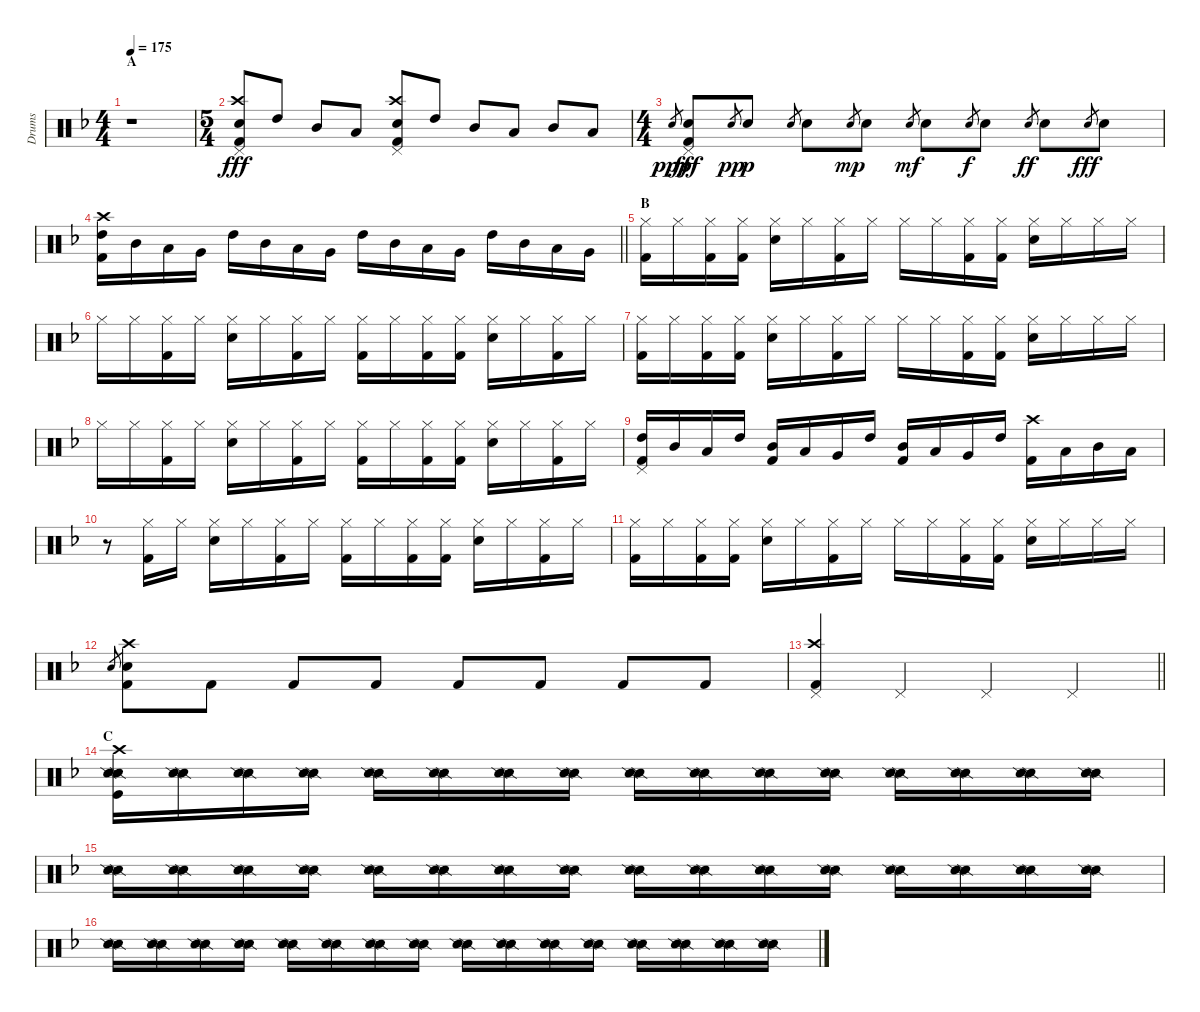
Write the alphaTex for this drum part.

\track ("Drums" "Drums") {instrument percussion}
\staff {score}
\articulation defaults
\ts (4 4)
\section ("" "A")
\tempo 175
\clef neutral
\ks f
r.1{dy fff} |
\ts (5 4)
("Pedal Hi-Hat (hit)" "Crash high (hit)" "Snare (hit) 2" "Kick (hit) 2").8 "High Tom (hit)".8 "Mid Tom (hit)".8 "Low Tom (hit)".8 ("Pedal Hi-Hat (hit)" "Crash high (hit)" "Snare (hit) 2" "Kick (hit) 2").8 "High Tom (hit)".8 "Mid Tom (hit)".8 "Low Tom (hit)".8 "Mid Tom (hit)".8 "Low Tom (hit)".8 |
\ts (4 4)
"Snare (hit) 2".8{gr dy ppp} ("Pedal Hi-Hat (hit)" "Snare (hit) 2" "Kick (hit) 2").8{dy fff} "Snare (hit) 2".8{gr dy pp} "Snare (hit) 2".8{dy p} "Snare (hit) 2".8{gr} "Snare (hit) 2".8 "Snare (hit) 2".8{gr dy mp} "Snare (hit) 2".8 "Snare (hit) 2".8{gr dy mf} "Snare (hit) 2".8 "Snare (hit) 2".8{gr dy f} "Snare (hit) 2".8 "Snare (hit) 2".8{gr dy ff} "Snare (hit) 2".8 "Snare (hit) 2".8{gr dy fff} "Snare (hit) 2".8 |
\barLineRight lightlight
("Crash high (hit)" "High Tom (hit)" "Kick (hit) 2").16 "Mid Tom (hit)".16 "Low Tom (hit)".16 "Very Low Tom (hit)".16 "High Tom (hit)".16 "Mid Tom (hit)".16 "Low Tom (hit)".16 "Very Low Tom (hit)".16 "High Tom (hit)".16 "Mid Tom (hit)".16 "Low Tom (hit)".16 "Very Low Tom (hit)".16 "High Tom (hit)".16 "Mid Tom (hit)".16 "Low Tom (hit)".16 "Very Low Tom (hit)".16 |
\section ("" "B")
("Hi-Hat (closed)" "Kick (hit) 2").16 "Hi-Hat (closed)".16 ("Hi-Hat (closed)" "Kick (hit) 2").16 ("Hi-Hat (closed)" "Kick (hit) 2").16 ("Hi-Hat (closed)" "Snare (hit) 2").16 "Hi-Hat (closed)".16 ("Hi-Hat (closed)" "Kick (hit) 2").16 "Hi-Hat (closed)".16 "Hi-Hat (closed)".16 "Hi-Hat (closed)".16 ("Hi-Hat (closed)" "Kick (hit) 2").16 ("Hi-Hat (closed)" "Kick (hit) 2").16 ("Hi-Hat (closed)" "Snare (hit) 2").16 "Hi-Hat (closed)".16 "Hi-Hat (closed)".16 "Hi-Hat (closed)".16 |
"Hi-Hat (closed)".16 "Hi-Hat (closed)".16 ("Hi-Hat (closed)" "Kick (hit) 2").16 "Hi-Hat (closed)".16 ("Hi-Hat (closed)" "Snare (hit) 2").16 "Hi-Hat (closed)".16 ("Hi-Hat (closed)" "Kick (hit) 2").16 "Hi-Hat (closed)".16 ("Hi-Hat (closed)" "Kick (hit) 2").16 "Hi-Hat (closed)".16 ("Hi-Hat (closed)" "Kick (hit) 2").16 ("Hi-Hat (closed)" "Kick (hit) 2").16 ("Hi-Hat (closed)" "Snare (hit) 2").16 "Hi-Hat (closed)".16 ("Hi-Hat (closed)" "Kick (hit) 2").16 "Hi-Hat (closed)".16 |
("Hi-Hat (closed)" "Kick (hit) 2").16 "Hi-Hat (closed)".16 ("Hi-Hat (closed)" "Kick (hit) 2").16 ("Hi-Hat (closed)" "Kick (hit) 2").16 ("Hi-Hat (closed)" "Snare (hit) 2").16 "Hi-Hat (closed)".16 ("Hi-Hat (closed)" "Kick (hit) 2").16 "Hi-Hat (closed)".16 "Hi-Hat (closed)".16 "Hi-Hat (closed)".16 ("Hi-Hat (closed)" "Kick (hit) 2").16 ("Hi-Hat (closed)" "Kick (hit) 2").16 ("Hi-Hat (closed)" "Snare (hit) 2").16 "Hi-Hat (closed)".16 "Hi-Hat (closed)".16 "Hi-Hat (closed)".16 |
"Hi-Hat (closed)".16 "Hi-Hat (closed)".16 ("Hi-Hat (closed)" "Kick (hit) 2").16 "Hi-Hat (closed)".16 ("Hi-Hat (closed)" "Snare (hit) 2").16 "Hi-Hat (closed)".16 ("Hi-Hat (closed)" "Kick (hit) 2").16 "Hi-Hat (closed)".16 ("Hi-Hat (closed)" "Kick (hit) 2").16 "Hi-Hat (closed)".16 ("Hi-Hat (closed)" "Kick (hit) 2").16 ("Hi-Hat (closed)" "Kick (hit) 2").16 ("Hi-Hat (closed)" "Snare (hit) 2").16 "Hi-Hat (closed)".16 ("Hi-Hat (closed)" "Kick (hit) 2").16 "Hi-Hat (closed)".16 |
("Pedal Hi-Hat (hit)" "High Tom (hit)" "Kick (hit) 2").16 "Mid Tom (hit)".16 "Low Tom (hit)".16 "High Tom (hit)".16 ("Mid Tom (hit)" "Kick (hit) 2").16 "Low Tom (hit)".16 "Very Low Tom (hit)".16 "High Tom (hit)".16 ("Mid Tom (hit)" "Kick (hit) 2").16 "Low Tom (hit)".16 "Very Low Tom (hit)".16 "High Tom (hit)".16 ("Crash high (hit)" "Kick (hit) 2").16 "Low Tom (hit)".16 "Mid Tom (hit)".16 "Low Tom (hit)".16 |
r.8 ("Hi-Hat (closed)" "Kick (hit) 2").16 "Hi-Hat (closed)".16 ("Hi-Hat (closed)" "Snare (hit) 2").16 "Hi-Hat (closed)".16 ("Hi-Hat (closed)" "Kick (hit) 2").16 "Hi-Hat (closed)".16 ("Hi-Hat (closed)" "Kick (hit) 2").16 "Hi-Hat (closed)".16 ("Hi-Hat (closed)" "Kick (hit) 2").16 ("Hi-Hat (closed)" "Kick (hit) 2").16 ("Hi-Hat (closed)" "Snare (hit) 2").16 "Hi-Hat (closed)".16 ("Hi-Hat (closed)" "Kick (hit) 2").16 "Hi-Hat (closed)".16 |
("Hi-Hat (closed)" "Kick (hit) 2").16 "Hi-Hat (closed)".16 ("Hi-Hat (closed)" "Kick (hit) 2").16 ("Hi-Hat (closed)" "Kick (hit) 2").16 ("Hi-Hat (closed)" "Snare (hit) 2").16 "Hi-Hat (closed)".16 ("Hi-Hat (closed)" "Kick (hit) 2").16 "Hi-Hat (closed)".16 "Hi-Hat (closed)".16 "Hi-Hat (closed)".16 ("Hi-Hat (closed)" "Kick (hit) 2").16 ("Hi-Hat (closed)" "Kick (hit) 2").16 ("Hi-Hat (closed)" "Snare (hit) 2").16 "Hi-Hat (closed)".16 "Hi-Hat (closed)".16 "Hi-Hat (closed)".16 |
"Snare (hit) 2".8{gr} ("Crash high (hit)" "Snare (hit) 2" "Kick (hit) 2").8 "Kick (hit) 2".8 "Kick (hit) 2".8 "Kick (hit) 2".8 "Kick (hit) 2".8 "Kick (hit) 2".8 "Kick (hit) 2".8 "Kick (hit) 2".8 |
\barLineRight lightlight
("Pedal Hi-Hat (hit)" "Crash high (hit)" "Kick (hit) 2").4 "Pedal Hi-Hat (hit)".4 "Pedal Hi-Hat (hit)".4 "Pedal Hi-Hat (hit)".4 |
\section ("" "C")
("Crash high (hit)" "Snare (side stick) 2" "Snare (side stick) 2" "Kick (hit)").16 ("Snare (side stick) 2" "Snare (side stick) 2").16 ("Snare (side stick) 2" "Snare (side stick) 2").16 ("Snare (side stick) 2" "Snare (side stick) 2").16 ("Snare (side stick) 2" "Snare (side stick) 2").16 ("Snare (side stick) 2" "Snare (side stick) 2").16 ("Snare (side stick) 2" "Snare (side stick) 2").16 ("Snare (side stick) 2" "Snare (side stick) 2").16 ("Snare (side stick) 2" "Snare (side stick) 2").16 ("Snare (side stick) 2" "Snare (side stick) 2").16 ("Snare (side stick) 2" "Snare (side stick) 2").16 ("Snare (side stick) 2" "Snare (side stick) 2").16 ("Snare (side stick) 2" "Snare (side stick) 2").16 ("Snare (side stick) 2" "Snare (side stick) 2").16 ("Snare (side stick) 2" "Snare (side stick) 2").16 ("Snare (side stick) 2" "Snare (side stick) 2").16 |
("Snare (side stick) 2" "Snare (side stick) 2").16 ("Snare (side stick) 2" "Snare (side stick) 2").16 ("Snare (side stick) 2" "Snare (side stick) 2").16 ("Snare (side stick) 2" "Snare (side stick) 2").16 ("Snare (side stick) 2" "Snare (side stick) 2").16 ("Snare (side stick) 2" "Snare (side stick) 2").16 ("Snare (side stick) 2" "Snare (side stick) 2").16 ("Snare (side stick) 2" "Snare (side stick) 2").16 ("Snare (side stick) 2" "Snare (side stick) 2").16 ("Snare (side stick) 2" "Snare (side stick) 2").16 ("Snare (side stick) 2" "Snare (side stick) 2").16 ("Snare (side stick) 2" "Snare (side stick) 2").16 ("Snare (side stick) 2" "Snare (side stick) 2").16 ("Snare (side stick) 2" "Snare (side stick) 2").16 ("Snare (side stick) 2" "Snare (side stick) 2").16 ("Snare (side stick) 2" "Snare (side stick) 2").16 |
("Snare (side stick) 2" "Snare (side stick) 2").16 ("Snare (side stick) 2" "Snare (side stick) 2").16 ("Snare (side stick) 2" "Snare (side stick) 2").16 ("Snare (side stick) 2" "Snare (side stick) 2").16 ("Snare (side stick) 2" "Snare (side stick) 2").16 ("Snare (side stick) 2" "Snare (side stick) 2").16 ("Snare (side stick) 2" "Snare (side stick) 2").16 ("Snare (side stick) 2" "Snare (side stick) 2").16 ("Snare (side stick) 2" "Snare (side stick) 2").16 ("Snare (side stick) 2" "Snare (side stick) 2").16 ("Snare (side stick) 2" "Snare (side stick) 2").16 ("Snare (side stick) 2" "Snare (side stick) 2").16 ("Snare (side stick) 2" "Snare (side stick) 2").16 ("Snare (side stick) 2" "Snare (side stick) 2").16 ("Snare (side stick) 2" "Snare (side stick) 2").16 ("Snare (side stick) 2" "Snare (side stick) 2").16
